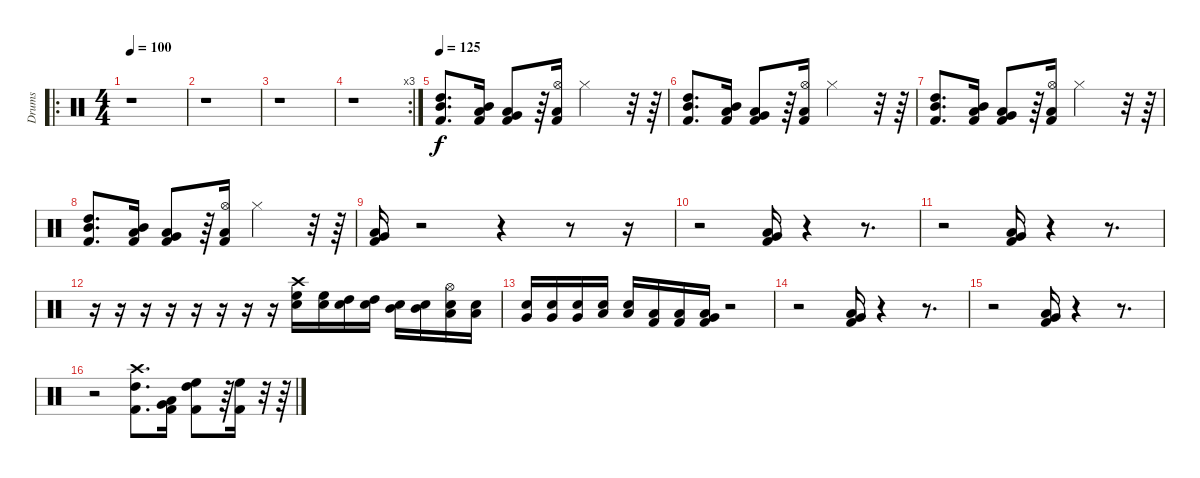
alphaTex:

\track ("Drums" "Drums") {instrument percussion}
\staff {score}
\articulation defaults
\ro
\ts (4 4)
\tempo 100
\clef neutral
\ks c
r.1{dy f} |
r.1 |
r.1 |
\rc 3
r.1 |
\tempo 125
("Mid Tom (hit)" "High Tom (hit)" "Kick (hit) 2").8{d} ("Low Tom (hit)" "Mid Tom (hit)" "Kick (hit) 2").16 ("Very Low Tom (hit)" "Low Tom (hit)" "Kick (hit) 2").8 r.64 ("Hi-Hat (open)" "Low Floor Tom (hit)" "Kick (hit) 2").16 "Hi-Hat (closed)".2 r.32 r.64 |
("Mid Tom (hit)" "High Tom (hit)" "Kick (hit) 2").8{d} ("Low Tom (hit)" "Mid Tom (hit)" "Kick (hit) 2").16 ("Very Low Tom (hit)" "Low Tom (hit)" "Kick (hit) 2").8 r.64 ("Hi-Hat (open)" "Low Floor Tom (hit)" "Kick (hit) 2").16 "Hi-Hat (closed)".2 r.32 r.64 |
("Mid Tom (hit)" "High Tom (hit)" "Kick (hit) 2").8{d} ("Low Tom (hit)" "Mid Tom (hit)" "Kick (hit) 2").16 ("Very Low Tom (hit)" "Low Tom (hit)" "Kick (hit) 2").8 r.64 ("Hi-Hat (open)" "Low Floor Tom (hit)" "Kick (hit) 2").16 "Hi-Hat (closed)".2 r.32 r.64 |
("Mid Tom (hit)" "High Tom (hit)" "Kick (hit) 2").8{d} ("Low Tom (hit)" "Mid Tom (hit)" "Kick (hit) 2").16 ("Very Low Tom (hit)" "Low Tom (hit)" "Kick (hit) 2").8 r.64 ("Hi-Hat (open)" "Low Floor Tom (hit)" "Kick (hit) 2").16 "Hi-Hat (closed)".2 r.32 r.64 |
("Very Low Tom (hit)" "Low Floor Tom (hit)" "Kick (hit) 2").16 r.2 r.4 r.8 r.16 |
r.2 ("Very Low Tom (hit)" "Low Floor Tom (hit)" "Kick (hit) 2").16 r.4 r.8{d} |
r.2 ("Very Low Tom (hit)" "Low Floor Tom (hit)" "Kick (hit) 2").16 r.4 r.8{d} |
r.16 r.16 r.16 r.16 r.16 r.16 r.16 r.16 ("Crash high (hit)" "High Floor Tom (hit)" "Snare (hit) 2").16 ("High Floor Tom (hit)" "Snare (hit) 2").16 ("High Tom (hit)" "Snare (hit) 2").16 ("High Tom (hit)" "Snare (hit) 2").16 ("Mid Tom (hit)" "Snare (hit) 2").16 ("Mid Tom (hit)" "Snare (hit) 2").16 ("Hi-Hat (open)" "Low Tom (hit)" "Snare (hit) 2").16 ("Low Tom (hit)" "Snare (hit) 2").16 |
("Very Low Tom (hit)" "Snare (hit) 2").16 ("Very Low Tom (hit)" "Snare (hit) 2").16 ("Very Low Tom (hit)" "Snare (hit) 2").16 ("Low Floor Tom (hit)" "Snare (hit) 2").16 ("Low Floor Tom (hit)" "Snare (hit) 2").16 ("Low Floor Tom (hit)" "Kick (hit) 2").16 ("Low Floor Tom (hit)" "Kick (hit) 2").16 ("Very Low Tom (hit)" "Low Floor Tom (hit)" "Kick (hit) 2").16 r.2 |
r.2 ("Very Low Tom (hit)" "Low Floor Tom (hit)" "Kick (hit) 2").16 r.4 r.8{d} |
r.2 ("Very Low Tom (hit)" "Low Floor Tom (hit)" "Kick (hit) 2").16 r.4 r.8{d} |
r.2 ("Crash high (hit)" "High Tom (hit)" "Kick (hit) 2").8{d} ("Very Low Tom (hit)" "Low Floor Tom (hit)" "Kick (hit) 2").16 ("High Floor Tom (hit)" "High Tom (hit)" "Kick (hit) 2").8 r.64 ("High Floor Tom (hit)" "Kick (hit) 2").16 r.32 r.64
